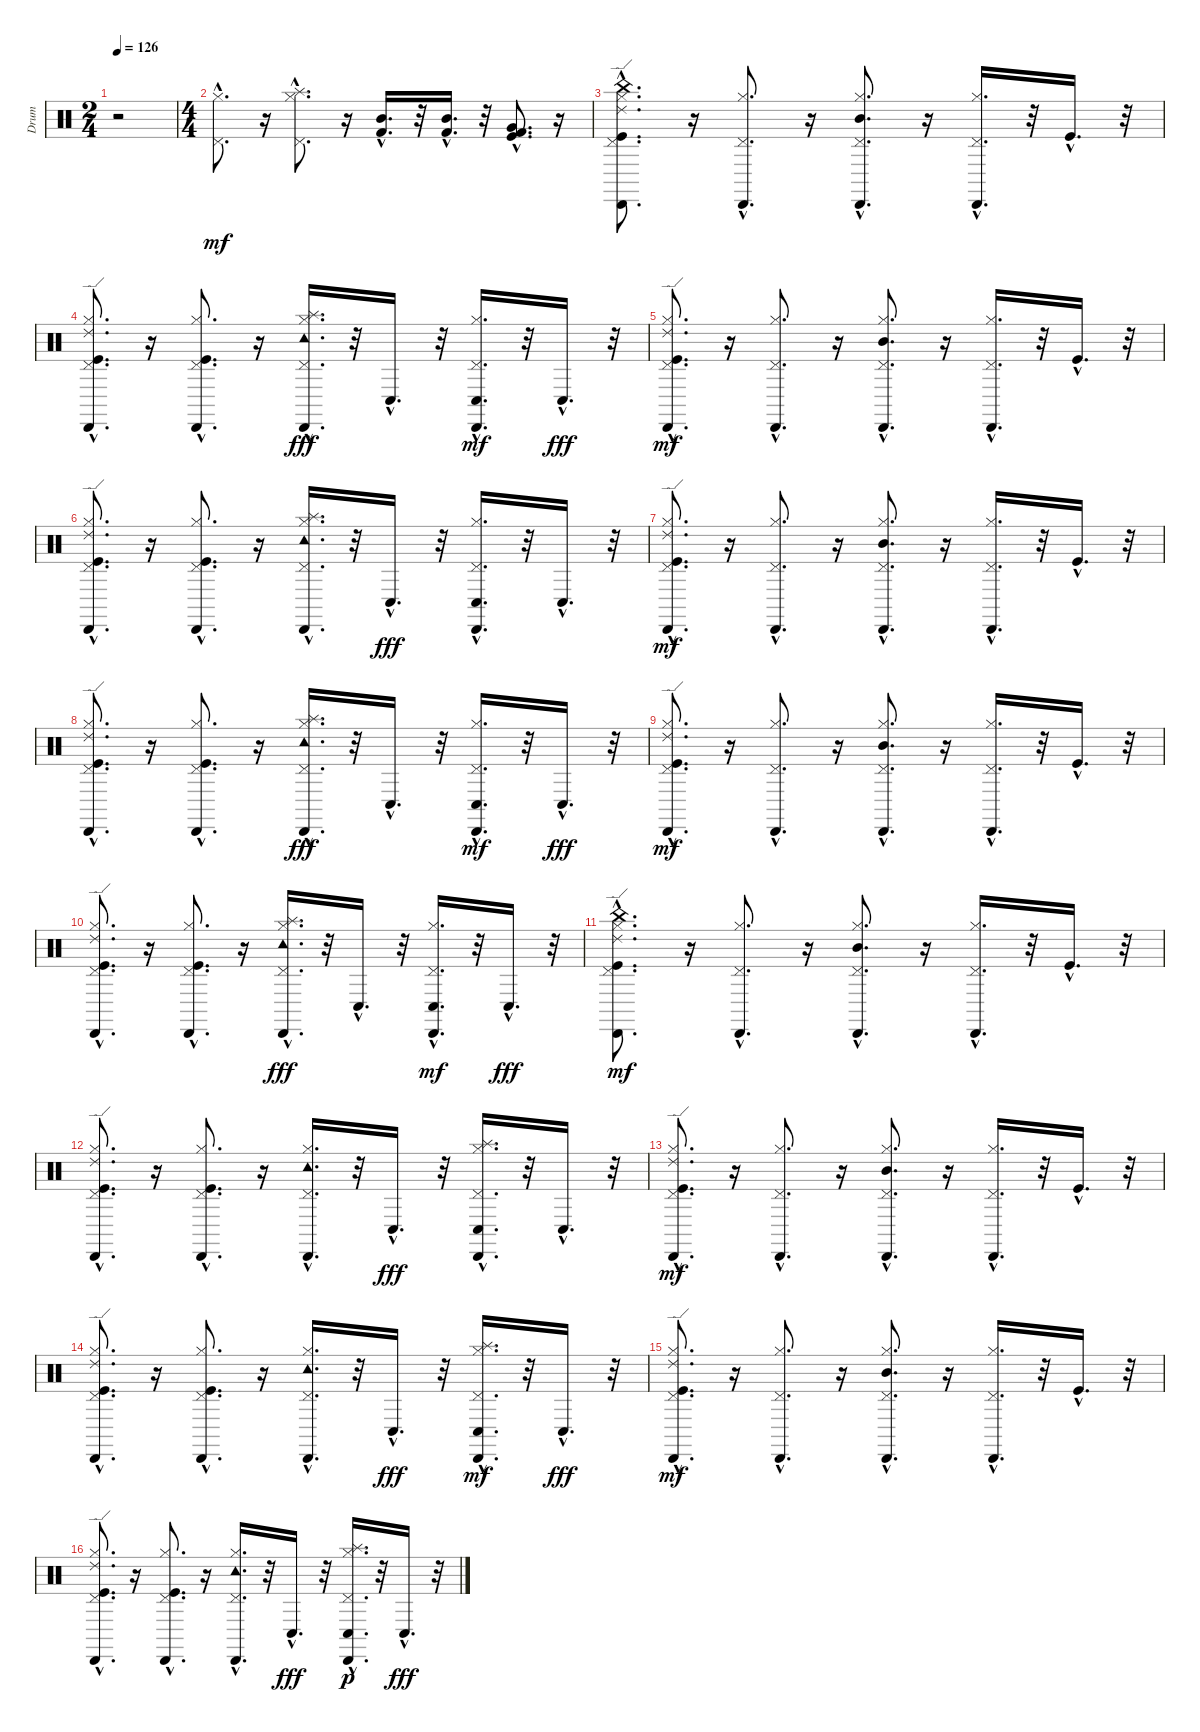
\track ("Drum" "Drum") {instrument percussion}
\staff {score}
\articulation defaults
\ts (2 4)
\tempo 126
\clef neutral
\ks c
r.2{dy mf} |
\ts (4 4)
("Hi-Hat (closed)"{hac} "Pedal Hi-Hat (hit)"{hac}).8{d} r.16 ("Hi-Hat (closed)"{hac} "Splash (hit)"{hac} "Pedal Hi-Hat (hit)"{hac}).8{d} r.16 ("Kick (hit) 2"{hac} "Mid Tom (hit)"{hac}).16{d} r.32 ("Kick (hit) 2"{hac} "Mid Tom (hit)"{hac}).16{d} r.32 ("Kick (hit) 2"{hac} "Kick (hit)"{hac} "Very Low Tom (hit)"{hac}).8{d} r.16 |
("Ride (edge) 2"{hac} "Cabasa (hit)"{hac} "Hi-Hat (closed)"{hac} "Pedal Hi-Hat (hit)"{hac} "China (hit)"{hac} "Kick (hit)"{hac}).8{d} r.16 ("Cabasa (hit)"{hac} "Hi-Hat (closed)"{hac} "Pedal Hi-Hat (hit)"{hac}).8{d} r.16 ("Cabasa (hit)"{hac} "Hi-Hat (closed)"{hac} "Mid Tom (hit)"{hac} "Pedal Hi-Hat (hit)"{hac}).8{d} r.16 ("Cabasa (hit)"{hac} "Hi-Hat (closed)"{hac} "Pedal Hi-Hat (hit)"{hac}).16{d} r.32 "Kick (hit)"{hac}.16{d} r.32 |
("Pedal Hi-Hat (hit)"{hac} "Kick (hit)"{hac} "Hi-Hat (closed)"{hac} "Cabasa (hit)"{hac} "Ride (edge) 2"{hac}).8{d} r.16 ("Pedal Hi-Hat (hit)"{hac} "Kick (hit)"{hac} "Hi-Hat (closed)"{hac} "Cabasa (hit)"{hac}).8{d} r.16 ("Cabasa (hit)"{hac} "Pedal Hi-Hat (hit)"{hac} "Hi-Hat (closed)"{hac} "Tambourine (hit)"{hac} "Splash (hit)"{hac}).16{d dy fff} r.32 "Conga low (hit)"{hac}.16{d} r.32 ("Conga low (hit)"{hac} "Pedal Hi-Hat (hit)"{hac} "Hi-Hat (closed)"{hac} "Cabasa (hit)"{hac}).16{d dy mf} r.32 "Conga low (hit)"{hac}.16{d dy fff} r.32 |
("Ride (edge) 2"{hac} "Cabasa (hit)"{hac} "Hi-Hat (closed)"{hac} "Kick (hit)"{hac} "Pedal Hi-Hat (hit)"{hac}).8{d dy mf} r.16 ("Cabasa (hit)"{hac} "Hi-Hat (closed)"{hac} "Pedal Hi-Hat (hit)"{hac}).8{d} r.16 ("Cabasa (hit)"{hac} "Hi-Hat (closed)"{hac} "Pedal Hi-Hat (hit)"{hac} "Mid Tom (hit)"{hac}).8{d} r.16 ("Cabasa (hit)"{hac} "Hi-Hat (closed)"{hac} "Pedal Hi-Hat (hit)"{hac}).16{d} r.32 "Kick (hit)"{hac}.16{d} r.32 |
("Ride (edge) 2"{hac} "Cabasa (hit)"{hac} "Hi-Hat (closed)"{hac} "Kick (hit)"{hac} "Pedal Hi-Hat (hit)"{hac}).8{d} r.16 ("Cabasa (hit)"{hac} "Hi-Hat (closed)"{hac} "Kick (hit)"{hac} "Pedal Hi-Hat (hit)"{hac}).8{d} r.16 ("Splash (hit)"{hac} "Tambourine (hit)"{hac} "Hi-Hat (closed)"{hac} "Pedal Hi-Hat (hit)"{hac} "Cabasa (hit)"{hac}).16{d} r.32 "Conga low (hit)"{hac}.16{d dy fff} r.32 ("Cabasa (hit)"{hac} "Hi-Hat (closed)"{hac} "Pedal Hi-Hat (hit)"{hac} "Conga low (hit)"{hac}).16{d} r.32 "Conga low (hit)"{hac}.16{d} r.32 |
("Ride (edge) 2"{hac} "Cabasa (hit)"{hac} "Hi-Hat (closed)"{hac} "Pedal Hi-Hat (hit)"{hac} "Kick (hit)"{hac}).8{d dy mf} r.16 ("Cabasa (hit)"{hac} "Hi-Hat (closed)"{hac} "Pedal Hi-Hat (hit)"{hac}).8{d} r.16 ("Cabasa (hit)"{hac} "Hi-Hat (closed)"{hac} "Mid Tom (hit)"{hac} "Pedal Hi-Hat (hit)"{hac}).8{d} r.16 ("Cabasa (hit)"{hac} "Hi-Hat (closed)"{hac} "Pedal Hi-Hat (hit)"{hac}).16{d} r.32 "Kick (hit)"{hac}.16{d} r.32 |
("Pedal Hi-Hat (hit)"{hac} "Kick (hit)"{hac} "Hi-Hat (closed)"{hac} "Cabasa (hit)"{hac} "Ride (edge) 2"{hac}).8{d} r.16 ("Pedal Hi-Hat (hit)"{hac} "Kick (hit)"{hac} "Hi-Hat (closed)"{hac} "Cabasa (hit)"{hac}).8{d} r.16 ("Cabasa (hit)"{hac} "Pedal Hi-Hat (hit)"{hac} "Hi-Hat (closed)"{hac} "Tambourine (hit)"{hac} "Splash (hit)"{hac}).16{d dy fff} r.32 "Conga low (hit)"{hac}.16{d} r.32 ("Conga low (hit)"{hac} "Pedal Hi-Hat (hit)"{hac} "Hi-Hat (closed)"{hac} "Cabasa (hit)"{hac}).16{d dy mf} r.32 "Conga low (hit)"{hac}.16{d dy fff} r.32 |
("Ride (edge) 2"{hac} "Cabasa (hit)"{hac} "Hi-Hat (closed)"{hac} "Kick (hit)"{hac} "Pedal Hi-Hat (hit)"{hac}).8{d dy mf} r.16 ("Cabasa (hit)"{hac} "Hi-Hat (closed)"{hac} "Pedal Hi-Hat (hit)"{hac}).8{d} r.16 ("Cabasa (hit)"{hac} "Hi-Hat (closed)"{hac} "Pedal Hi-Hat (hit)"{hac} "Mid Tom (hit)"{hac}).8{d} r.16 ("Cabasa (hit)"{hac} "Hi-Hat (closed)"{hac} "Pedal Hi-Hat (hit)"{hac}).16{d} r.32 "Kick (hit)"{hac}.16{d} r.32 |
("Pedal Hi-Hat (hit)"{hac} "Kick (hit)"{hac} "Hi-Hat (closed)"{hac} "Cabasa (hit)"{hac} "Ride (edge) 2"{hac}).8{d} r.16 ("Pedal Hi-Hat (hit)"{hac} "Kick (hit)"{hac} "Hi-Hat (closed)"{hac} "Cabasa (hit)"{hac}).8{d} r.16 ("Cabasa (hit)"{hac} "Pedal Hi-Hat (hit)"{hac} "Hi-Hat (closed)"{hac} "Tambourine (hit)"{hac} "Splash (hit)"{hac}).16{d dy fff} r.32 "Conga low (hit)"{hac}.16{d} r.32 ("Conga low (hit)"{hac} "Pedal Hi-Hat (hit)"{hac} "Hi-Hat (closed)"{hac} "Cabasa (hit)"{hac}).16{d dy mf} r.32 "Conga low (hit)"{hac}.16{d dy fff} r.32 |
("Kick (hit)"{hac} "China (hit)"{hac} "Pedal Hi-Hat (hit)"{hac} "Hi-Hat (closed)"{hac} "Cabasa (hit)"{hac} "Ride (edge) 2"{hac}).8{d dy mf} r.16 ("Pedal Hi-Hat (hit)"{hac} "Hi-Hat (closed)"{hac} "Cabasa (hit)"{hac}).8{d} r.16 ("Pedal Hi-Hat (hit)"{hac} "Mid Tom (hit)"{hac} "Hi-Hat (closed)"{hac} "Cabasa (hit)"{hac}).8{d} r.16 ("Pedal Hi-Hat (hit)"{hac} "Hi-Hat (closed)"{hac} "Cabasa (hit)"{hac}).16{d} r.32 "Kick (hit)"{hac}.16{d} r.32 |
("Ride (edge) 2"{hac} "Cabasa (hit)"{hac} "Hi-Hat (closed)"{hac} "Kick (hit)"{hac} "Pedal Hi-Hat (hit)"{hac}).8{d} r.16 ("Cabasa (hit)"{hac} "Hi-Hat (closed)"{hac} "Kick (hit)"{hac} "Pedal Hi-Hat (hit)"{hac}).8{d} r.16 ("Hi-Hat (closed)"{hac} "Pedal Hi-Hat (hit)"{hac} "Cabasa (hit)"{hac} "Tambourine (hit)"{hac}).16{d} r.32 "Conga low (hit)"{hac}.16{d dy fff} r.32 ("Splash (hit)"{hac} "Cabasa (hit)"{hac} "Hi-Hat (closed)"{hac} "Pedal Hi-Hat (hit)"{hac} "Conga low (hit)"{hac}).16{d} r.32 "Conga low (hit)"{hac}.16{d} r.32 |
("Pedal Hi-Hat (hit)"{hac} "Kick (hit)"{hac} "Hi-Hat (closed)"{hac} "Cabasa (hit)"{hac} "Ride (edge) 2"{hac}).8{d dy mf} r.16 ("Pedal Hi-Hat (hit)"{hac} "Hi-Hat (closed)"{hac} "Cabasa (hit)"{hac}).8{d} r.16 ("Mid Tom (hit)"{hac} "Pedal Hi-Hat (hit)"{hac} "Hi-Hat (closed)"{hac} "Cabasa (hit)"{hac}).8{d} r.16 ("Pedal Hi-Hat (hit)"{hac} "Hi-Hat (closed)"{hac} "Cabasa (hit)"{hac}).16{d} r.32 "Kick (hit)"{hac}.16{d} r.32 |
("Pedal Hi-Hat (hit)"{hac} "Kick (hit)"{hac} "Hi-Hat (closed)"{hac} "Cabasa (hit)"{hac} "Ride (edge) 2"{hac}).8{d} r.16 ("Pedal Hi-Hat (hit)"{hac} "Kick (hit)"{hac} "Hi-Hat (closed)"{hac} "Cabasa (hit)"{hac}).8{d} r.16 ("Cabasa (hit)"{hac} "Pedal Hi-Hat (hit)"{hac} "Hi-Hat (closed)"{hac} "Tambourine (hit)"{hac}).16{d} r.32 "Conga low (hit)"{hac}.16{d dy fff} r.32 ("Splash (hit)"{hac} "Conga low (hit)"{hac} "Pedal Hi-Hat (hit)"{hac} "Hi-Hat (closed)"{hac} "Cabasa (hit)"{hac}).16{d dy mf} r.32 "Conga low (hit)"{hac}.16{d dy fff} r.32 |
("Ride (edge) 2"{hac} "Cabasa (hit)"{hac} "Hi-Hat (closed)"{hac} "Pedal Hi-Hat (hit)"{hac} "Kick (hit)"{hac}).8{d dy mf} r.16 ("Cabasa (hit)"{hac} "Hi-Hat (closed)"{hac} "Pedal Hi-Hat (hit)"{hac}).8{d} r.16 ("Cabasa (hit)"{hac} "Hi-Hat (closed)"{hac} "Mid Tom (hit)"{hac} "Pedal Hi-Hat (hit)"{hac}).8{d} r.16 ("Cabasa (hit)"{hac} "Hi-Hat (closed)"{hac} "Pedal Hi-Hat (hit)"{hac}).16{d} r.32 "Kick (hit)"{hac}.16{d} r.32 |
("Pedal Hi-Hat (hit)"{hac} "Kick (hit)"{hac} "Hi-Hat (closed)"{hac} "Cabasa (hit)"{hac} "Ride (edge) 2"{hac}).8{d} r.16 ("Pedal Hi-Hat (hit)"{hac} "Kick (hit)"{hac} "Hi-Hat (closed)"{hac} "Cabasa (hit)"{hac}).8{d} r.16 ("Tambourine (hit)"{hac} "Cabasa (hit)"{hac} "Pedal Hi-Hat (hit)"{hac} "Hi-Hat (closed)"{hac}).16{d} r.32 "Conga low (hit)"{hac}.16{d dy fff} r.32 ("Conga low (hit)"{hac} "Pedal Hi-Hat (hit)"{hac} "Hi-Hat (closed)"{hac} "Cabasa (hit)"{hac} "Splash (hit)"{hac}).16{d dy p} r.32 "Conga low (hit)"{hac}.16{d dy fff} r.32
